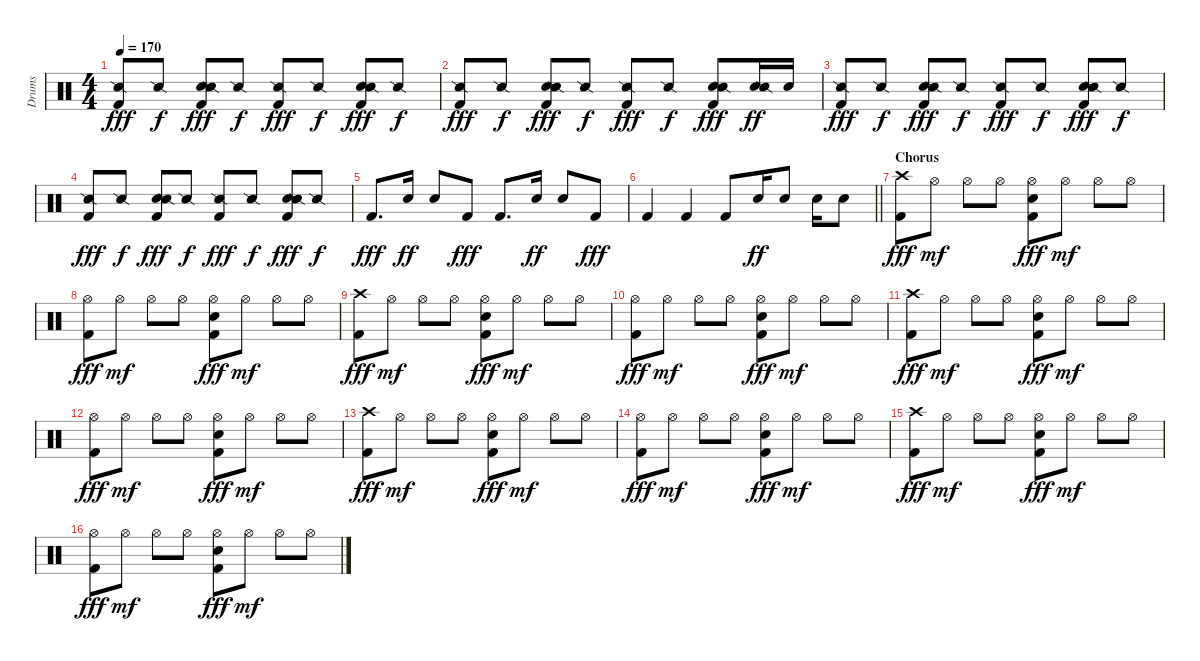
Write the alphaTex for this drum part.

\track ("Drums" "Drums") {instrument percussion}
\staff {score}
\articulation defaults
\ts (4 4)
\tempo 170
\clef neutral
\ks c
("Kick (hit) 2" "Snare (side stick) 2").8{dy fff} "Snare (side stick) 2".8{dy f} ("Snare (hit) 2" "Kick (hit) 2" "Snare (side stick) 2").8{dy fff} "Snare (side stick) 2".8{dy f} ("Kick (hit) 2" "Snare (side stick) 2").8{dy fff} "Snare (side stick) 2".8{dy f} ("Snare (hit) 2" "Kick (hit) 2" "Snare (side stick) 2").8{dy fff} "Snare (side stick) 2".8{dy f} |
("Kick (hit) 2" "Snare (side stick) 2").8{dy fff} "Snare (side stick) 2".8{dy f} ("Snare (hit) 2" "Kick (hit) 2" "Snare (side stick) 2").8{dy fff} "Snare (side stick) 2".8{dy f} ("Kick (hit) 2" "Snare (side stick) 2").8{dy fff} "Snare (side stick) 2".8{dy f} ("Snare (hit) 2" "Kick (hit) 2" "Snare (side stick) 2").8{dy fff} ("Snare (hit) 2" "Snare (side stick) 2").16{dy ff} "Snare (hit) 2".16 |
("Kick (hit) 2" "Snare (side stick) 2").8{dy fff} "Snare (side stick) 2".8{dy f} ("Snare (hit) 2" "Kick (hit) 2" "Snare (side stick) 2").8{dy fff} "Snare (side stick) 2".8{dy f} ("Kick (hit) 2" "Snare (side stick) 2").8{dy fff} "Snare (side stick) 2".8{dy f} ("Snare (hit) 2" "Kick (hit) 2" "Snare (side stick) 2").8{dy fff} "Snare (side stick) 2".8{dy f} |
("Kick (hit) 2" "Snare (side stick) 2").8{dy fff} "Snare (side stick) 2".8{dy f} ("Snare (hit) 2" "Kick (hit) 2" "Snare (side stick) 2").8{dy fff} "Snare (side stick) 2".8{dy f} ("Kick (hit) 2" "Snare (side stick) 2").8{dy fff} "Snare (side stick) 2".8{dy f} ("Snare (hit) 2" "Kick (hit) 2" "Snare (side stick) 2").8{dy fff} "Snare (side stick) 2".8{dy f} |
"Kick (hit) 2".8{d dy fff} "Snare (hit) 2".16{dy ff} "Snare (hit) 2".8 "Kick (hit) 2".8{dy fff} "Kick (hit) 2".8{d} "Snare (hit) 2".16{dy ff} "Snare (hit) 2".8 "Kick (hit) 2".8{dy fff} |
\barLineRight lightlight "Kick (hit) 2".4 "Kick (hit) 2".4 "Kick (hit) 2".8 "Snare (hit) 2".16{dy ff} "Snare (hit) 2".8 "Snare (hit) 2".16 "Snare (hit) 2".8
|
\section ("" "Chorus")
("Crash high (hit)" "Kick (hit) 2").8{dy fff} "Hi-Hat (open)".8{dy mf} "Hi-Hat (open)".8 "Hi-Hat (open)".8 ("Hi-Hat (open)" "Snare (hit) 2" "Kick (hit) 2").8{dy fff} "Hi-Hat (open)".8{dy mf} "Hi-Hat (open)".8 "Hi-Hat (open)".8 |
("Hi-Hat (open)" "Kick (hit) 2").8{dy fff} "Hi-Hat (open)".8{dy mf} "Hi-Hat (open)".8 "Hi-Hat (open)".8 ("Hi-Hat (open)" "Snare (hit) 2" "Kick (hit) 2").8{dy fff} "Hi-Hat (open)".8{dy mf} "Hi-Hat (open)".8 "Hi-Hat (open)".8 |
("Crash high (hit)" "Kick (hit) 2").8{dy fff} "Hi-Hat (open)".8{dy mf} "Hi-Hat (open)".8 "Hi-Hat (open)".8 ("Hi-Hat (open)" "Snare (hit) 2" "Kick (hit) 2").8{dy fff} "Hi-Hat (open)".8{dy mf} "Hi-Hat (open)".8 "Hi-Hat (open)".8 |
("Hi-Hat (open)" "Kick (hit) 2").8{dy fff} "Hi-Hat (open)".8{dy mf} "Hi-Hat (open)".8 "Hi-Hat (open)".8 ("Hi-Hat (open)" "Snare (hit) 2" "Kick (hit) 2").8{dy fff} "Hi-Hat (open)".8{dy mf} "Hi-Hat (open)".8 "Hi-Hat (open)".8 |
("Crash high (hit)" "Kick (hit) 2").8{dy fff} "Hi-Hat (open)".8{dy mf} "Hi-Hat (open)".8 "Hi-Hat (open)".8 ("Hi-Hat (open)" "Snare (hit) 2" "Kick (hit) 2").8{dy fff} "Hi-Hat (open)".8{dy mf} "Hi-Hat (open)".8 "Hi-Hat (open)".8 |
("Hi-Hat (open)" "Kick (hit) 2").8{dy fff} "Hi-Hat (open)".8{dy mf} "Hi-Hat (open)".8 "Hi-Hat (open)".8 ("Hi-Hat (open)" "Snare (hit) 2" "Kick (hit) 2").8{dy fff} "Hi-Hat (open)".8{dy mf} "Hi-Hat (open)".8 "Hi-Hat (open)".8 |
("Crash high (hit)" "Kick (hit) 2").8{dy fff} "Hi-Hat (open)".8{dy mf} "Hi-Hat (open)".8 "Hi-Hat (open)".8 ("Hi-Hat (open)" "Snare (hit) 2" "Kick (hit) 2").8{dy fff} "Hi-Hat (open)".8{dy mf} "Hi-Hat (open)".8 "Hi-Hat (open)".8 |
("Hi-Hat (open)" "Kick (hit) 2").8{dy fff} "Hi-Hat (open)".8{dy mf} "Hi-Hat (open)".8 "Hi-Hat (open)".8 ("Hi-Hat (open)" "Snare (hit) 2" "Kick (hit) 2").8{dy fff} "Hi-Hat (open)".8{dy mf} "Hi-Hat (open)".8 "Hi-Hat (open)".8 |
("Crash high (hit)" "Kick (hit) 2").8{dy fff} "Hi-Hat (open)".8{dy mf} "Hi-Hat (open)".8 "Hi-Hat (open)".8 ("Hi-Hat (open)" "Snare (hit) 2" "Kick (hit) 2").8{dy fff} "Hi-Hat (open)".8{dy mf} "Hi-Hat (open)".8 "Hi-Hat (open)".8 |
("Hi-Hat (open)" "Kick (hit) 2").8{dy fff} "Hi-Hat (open)".8{dy mf} "Hi-Hat (open)".8 "Hi-Hat (open)".8 ("Hi-Hat (open)" "Snare (hit) 2" "Kick (hit) 2").8{dy fff} "Hi-Hat (open)".8{dy mf} "Hi-Hat (open)".8 "Hi-Hat (open)".8
